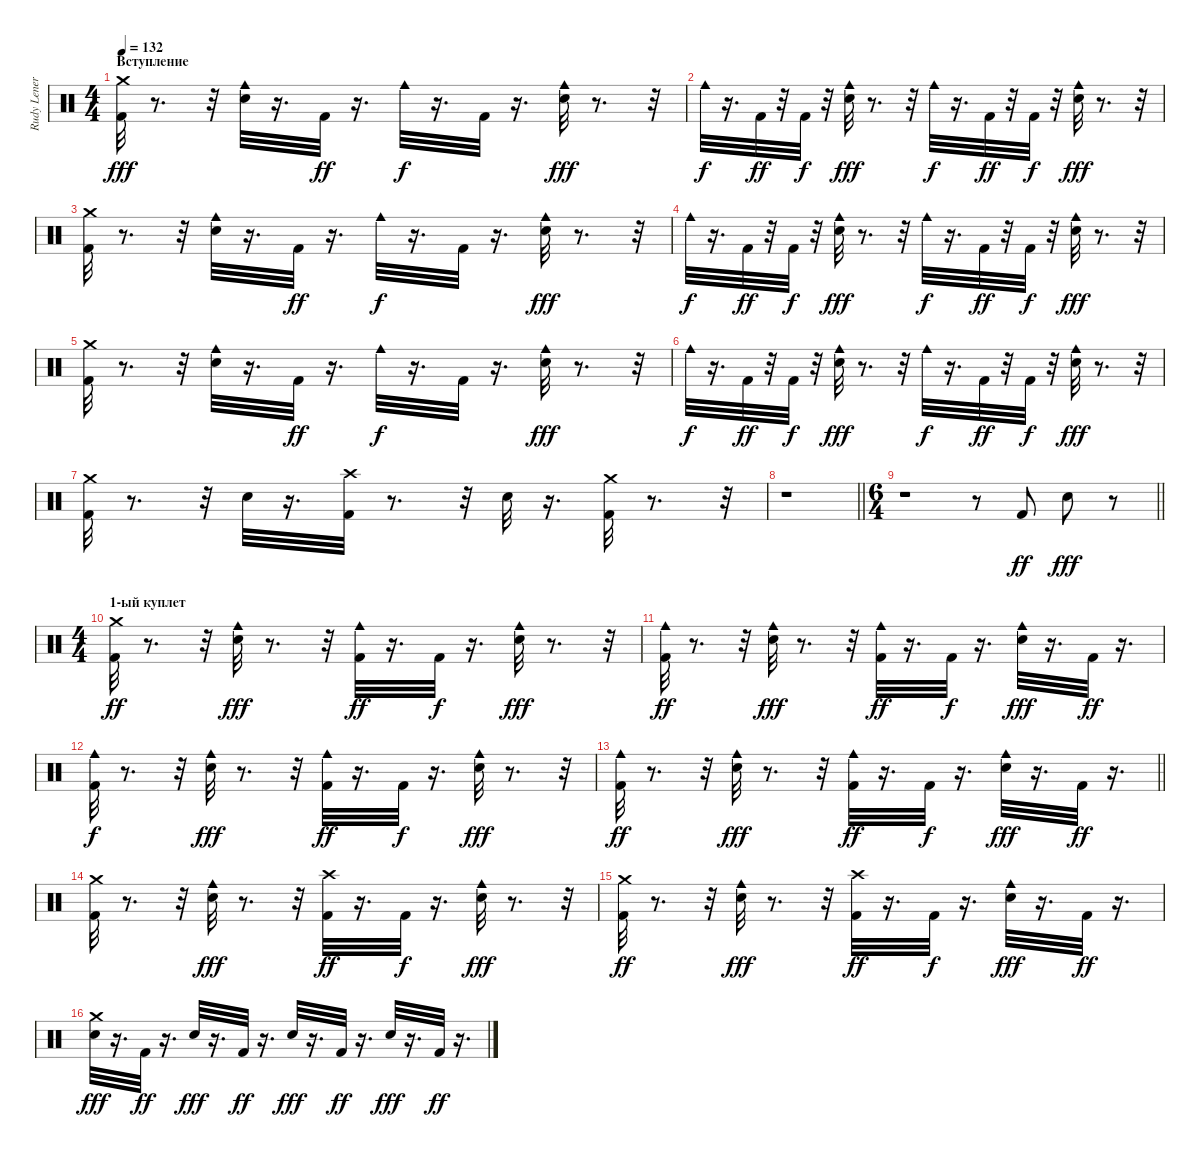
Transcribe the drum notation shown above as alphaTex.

\track ("Rudy Leners" "Rudy Lener") {instrument percussion}
\staff {score}
\articulation defaults
\ts (4 4)
\section ("" "Вступление")
\tempo 132
\clef neutral
\ks c
("Kick (hit) 2" "Crash medium (hit)").32{dy fff} r.8{d} r.32 ("Cowbell medium (hit)" "Snare (hit) 2").32 r.16{d} "Kick (hit) 2".32{dy ff} r.16{d} "Cowbell medium (hit)".32{dy f} r.16{d} "Kick (hit) 2".32 r.16{d} ("Cowbell medium (hit)" "Snare (hit) 2").32{dy fff} r.8{d} r.32 |
"Cowbell medium (hit)".32{dy f} r.16{d} "Kick (hit) 2".32{dy ff} r.32 "Kick (hit) 2".32{dy f} r.32 ("Cowbell medium (hit)" "Snare (hit) 2").32{dy fff} r.8{d} r.32 "Cowbell medium (hit)".32{dy f} r.16{d} "Kick (hit) 2".32{dy ff} r.32 "Kick (hit) 2".32{dy f} r.32 ("Cowbell medium (hit)" "Snare (hit) 2").32{dy fff} r.8{d} r.32 |
("Kick (hit) 2" "Crash medium (hit)").32 r.8{d} r.32 ("Cowbell medium (hit)" "Snare (hit) 2").32 r.16{d} "Kick (hit) 2".32{dy ff} r.16{d} "Cowbell medium (hit)".32{dy f} r.16{d} "Kick (hit) 2".32 r.16{d} ("Cowbell medium (hit)" "Snare (hit) 2").32{dy fff} r.8{d} r.32 |
"Cowbell medium (hit)".32{dy f} r.16{d} "Kick (hit) 2".32{dy ff} r.32 "Kick (hit) 2".32{dy f} r.32 ("Cowbell medium (hit)" "Snare (hit) 2").32{dy fff} r.8{d} r.32 "Cowbell medium (hit)".32{dy f} r.16{d} "Kick (hit) 2".32{dy ff} r.32 "Kick (hit) 2".32{dy f} r.32 ("Cowbell medium (hit)" "Snare (hit) 2").32{dy fff} r.8{d} r.32 |
("Kick (hit) 2" "Crash medium (hit)").32 r.8{d} r.32 ("Cowbell medium (hit)" "Snare (hit) 2").32 r.16{d} "Kick (hit) 2".32{dy ff} r.16{d} "Cowbell medium (hit)".32{dy f} r.16{d} "Kick (hit) 2".32 r.16{d} ("Cowbell medium (hit)" "Snare (hit) 2").32{dy fff} r.8{d} r.32 |
"Cowbell medium (hit)".32{dy f} r.16{d} "Kick (hit) 2".32{dy ff} r.32 "Kick (hit) 2".32{dy f} r.32 ("Cowbell medium (hit)" "Snare (hit) 2").32{dy fff} r.8{d} r.32 "Cowbell medium (hit)".32{dy f} r.16{d} "Kick (hit) 2".32{dy ff} r.32 "Kick (hit) 2".32{dy f} r.32 ("Cowbell medium (hit)" "Snare (hit) 2").32{dy fff} r.8{d} r.32 |
("Kick (hit) 2" "Crash medium (hit)").32 r.8{d} r.32 "Snare (hit) 2".32 r.16{d} ("Kick (hit) 2" "Crash high (hit)").32 r.8{d} r.32 "Snare (hit) 2".32 r.16{d} ("Kick (hit) 2" "Crash medium (hit)").32 r.8{d} r.32 |
\barLineRight lightlight
r.1 |
\ts (6 4)
\barLineRight lightlight
r.1 r.8 "Kick (hit) 2".8{dy ff} "Snare (hit) 2".8{dy fff} r.8 |
\ts (4 4)
\section ("" "1-ый куплет")
("Crash medium (hit)" "Kick (hit) 2").32{dy ff} r.8{d} r.32 ("Snare (hit) 2" "Cowbell medium (hit)").32{dy fff} r.8{d} r.32 ("Kick (hit) 2" "Cowbell medium (hit)").32{dy ff} r.16{d} "Kick (hit) 2".32{dy f} r.16{d} ("Snare (hit) 2" "Cowbell medium (hit)").32{dy fff} r.8{d} r.32 |
("Cowbell medium (hit)" "Kick (hit) 2").32{dy ff} r.8{d} r.32 ("Cowbell medium (hit)" "Snare (hit) 2").32{dy fff} r.8{d} r.32 ("Cowbell medium (hit)" "Kick (hit) 2").32{dy ff} r.16{d} "Kick (hit) 2".32{dy f} r.16{d} ("Cowbell medium (hit)" "Snare (hit) 2").32{dy fff} r.16{d} "Kick (hit) 2".32{dy ff} r.16{d} |
("Kick (hit) 2" "Cowbell medium (hit)").32{dy f} r.8{d} r.32 ("Snare (hit) 2" "Cowbell medium (hit)").32{dy fff} r.8{d} r.32 ("Kick (hit) 2" "Cowbell medium (hit)").32{dy ff} r.16{d} "Kick (hit) 2".32{dy f} r.16{d} ("Snare (hit) 2" "Cowbell medium (hit)").32{dy fff} r.8{d} r.32 |
\barLineRight lightlight
("Cowbell medium (hit)" "Kick (hit) 2").32{dy ff} r.8{d} r.32 ("Cowbell medium (hit)" "Snare (hit) 2").32{dy fff} r.8{d} r.32 ("Cowbell medium (hit)" "Kick (hit) 2").32{dy ff} r.16{d} "Kick (hit) 2".32{dy f} r.16{d} ("Cowbell medium (hit)" "Snare (hit) 2").32{dy fff} r.16{d} "Kick (hit) 2".32{dy ff} r.16{d} |
("Crash medium (hit)" "Kick (hit) 2").32 r.8{d} r.32 ("Snare (hit) 2" "Cowbell medium (hit)").32{dy fff} r.8{d} r.32 ("Crash high (hit)" "Kick (hit) 2").32{dy ff} r.16{d} "Kick (hit) 2".32{dy f} r.16{d} ("Snare (hit) 2" "Cowbell medium (hit)").32{dy fff} r.8{d} r.32 |
("Crash medium (hit)" "Kick (hit) 2").32{dy ff} r.8{d} r.32 ("Cowbell medium (hit)" "Snare (hit) 2").32{dy fff} r.8{d} r.32 ("Crash high (hit)" "Kick (hit) 2").32{dy ff} r.16{d} "Kick (hit) 2".32{dy f} r.16{d} ("Cowbell medium (hit)" "Snare (hit) 2").32{dy fff} r.16{d} "Kick (hit) 2".32{dy ff} r.16{d} |
("Crash medium (hit)" "Snare (hit) 2").32{dy fff} r.16{d} "Kick (hit) 2".32{dy ff} r.16{d} "Snare (hit) 2".32{dy fff} r.16{d} "Kick (hit) 2".32{dy ff} r.16{d} "Snare (hit) 2".32{dy fff} r.16{d} "Kick (hit) 2".32{dy ff} r.16{d} "Snare (hit) 2".32{dy fff} r.16{d} "Kick (hit) 2".32{dy ff} r.16{d}
